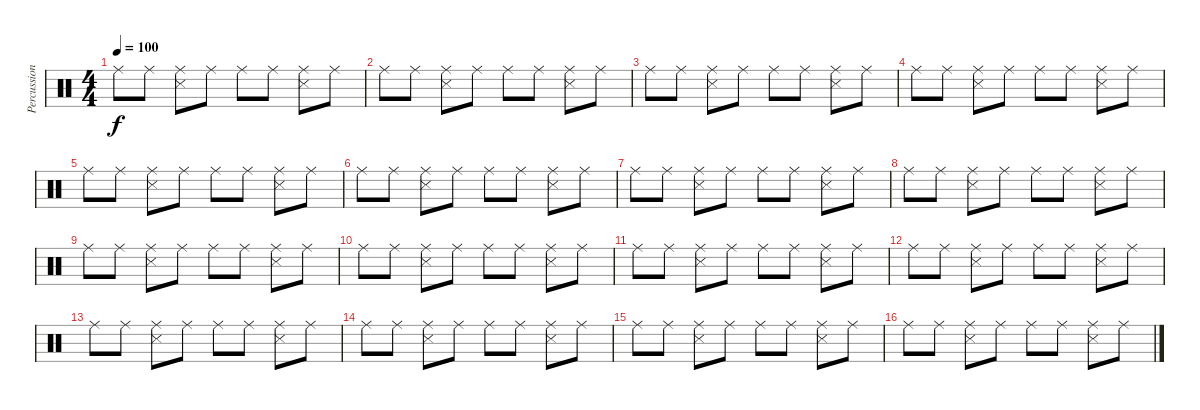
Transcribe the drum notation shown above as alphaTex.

\track ("Percussions (Moe Tucker)" "Percussion") {instrument percussion}
\staff {score}
\articulation defaults
\ts (4 4)
\tempo 100
\clef neutral
\ks c "Ride (middle)".8{dy f} "Ride (middle)".8
("Ride (middle)" "Snare (side stick) 3").8 "Ride (middle)".8 "Ride (middle)".8 "Ride (middle)".8 ("Ride (middle)" "Snare (side stick) 3").8 "Ride (middle)".8 |
"Ride (middle)".8 "Ride (middle)".8 ("Ride (middle)" "Snare (side stick) 3").8 "Ride (middle)".8 "Ride (middle)".8 "Ride (middle)".8 ("Ride (middle)" "Snare (side stick) 3").8 "Ride (middle)".8 |
"Ride (middle)".8 "Ride (middle)".8 ("Ride (middle)" "Snare (side stick) 3").8 "Ride (middle)".8 "Ride (middle)".8 "Ride (middle)".8 ("Ride (middle)" "Snare (side stick) 3").8 "Ride (middle)".8 |
"Ride (middle)".8 "Ride (middle)".8 ("Ride (middle)" "Snare (side stick) 3").8 "Ride (middle)".8 "Ride (middle)".8 "Ride (middle)".8 ("Ride (middle)" "Snare (side stick) 3").8 "Ride (middle)".8 |
"Ride (middle)".8 "Ride (middle)".8 ("Ride (middle)" "Snare (side stick) 3").8 "Ride (middle)".8 "Ride (middle)".8 "Ride (middle)".8 ("Ride (middle)" "Snare (side stick) 3").8 "Ride (middle)".8 |
"Ride (middle)".8 "Ride (middle)".8 ("Ride (middle)" "Snare (side stick) 3").8 "Ride (middle)".8 "Ride (middle)".8 "Ride (middle)".8 ("Ride (middle)" "Snare (side stick) 3").8 "Ride (middle)".8 |
"Ride (middle)".8 "Ride (middle)".8 ("Ride (middle)" "Snare (side stick) 3").8 "Ride (middle)".8 "Ride (middle)".8 "Ride (middle)".8 ("Ride (middle)" "Snare (side stick) 3").8 "Ride (middle)".8 |
"Ride (middle)".8 "Ride (middle)".8 ("Ride (middle)" "Snare (side stick) 3").8 "Ride (middle)".8 "Ride (middle)".8 "Ride (middle)".8 ("Ride (middle)" "Snare (side stick) 3").8 "Ride (middle)".8 |
"Ride (middle)".8 "Ride (middle)".8 ("Ride (middle)" "Snare (side stick) 3").8 "Ride (middle)".8 "Ride (middle)".8 "Ride (middle)".8 ("Ride (middle)" "Snare (side stick) 3").8 "Ride (middle)".8 |
"Ride (middle)".8 "Ride (middle)".8 ("Ride (middle)" "Snare (side stick) 3").8 "Ride (middle)".8 "Ride (middle)".8 "Ride (middle)".8 ("Ride (middle)" "Snare (side stick) 3").8 "Ride (middle)".8 |
"Ride (middle)".8 "Ride (middle)".8 ("Ride (middle)" "Snare (side stick) 3").8 "Ride (middle)".8 "Ride (middle)".8 "Ride (middle)".8 ("Ride (middle)" "Snare (side stick) 3").8 "Ride (middle)".8 |
"Ride (middle)".8 "Ride (middle)".8 ("Ride (middle)" "Snare (side stick) 3").8 "Ride (middle)".8 "Ride (middle)".8 "Ride (middle)".8 ("Ride (middle)" "Snare (side stick) 3").8 "Ride (middle)".8 |
"Ride (middle)".8 "Ride (middle)".8 ("Ride (middle)" "Snare (side stick) 3").8 "Ride (middle)".8 "Ride (middle)".8 "Ride (middle)".8 ("Ride (middle)" "Snare (side stick) 3").8 "Ride (middle)".8 |
"Ride (middle)".8 "Ride (middle)".8 ("Ride (middle)" "Snare (side stick) 3").8 "Ride (middle)".8 "Ride (middle)".8 "Ride (middle)".8 ("Ride (middle)" "Snare (side stick) 3").8 "Ride (middle)".8 |
"Ride (middle)".8 "Ride (middle)".8 ("Ride (middle)" "Snare (side stick) 3").8 "Ride (middle)".8 "Ride (middle)".8 "Ride (middle)".8 ("Ride (middle)" "Snare (side stick) 3").8 "Ride (middle)".8 |
"Ride (middle)".8 "Ride (middle)".8 ("Ride (middle)" "Snare (side stick) 3").8 "Ride (middle)".8 "Ride (middle)".8 "Ride (middle)".8 ("Ride (middle)" "Snare (side stick) 3").8 "Ride (middle)".8
